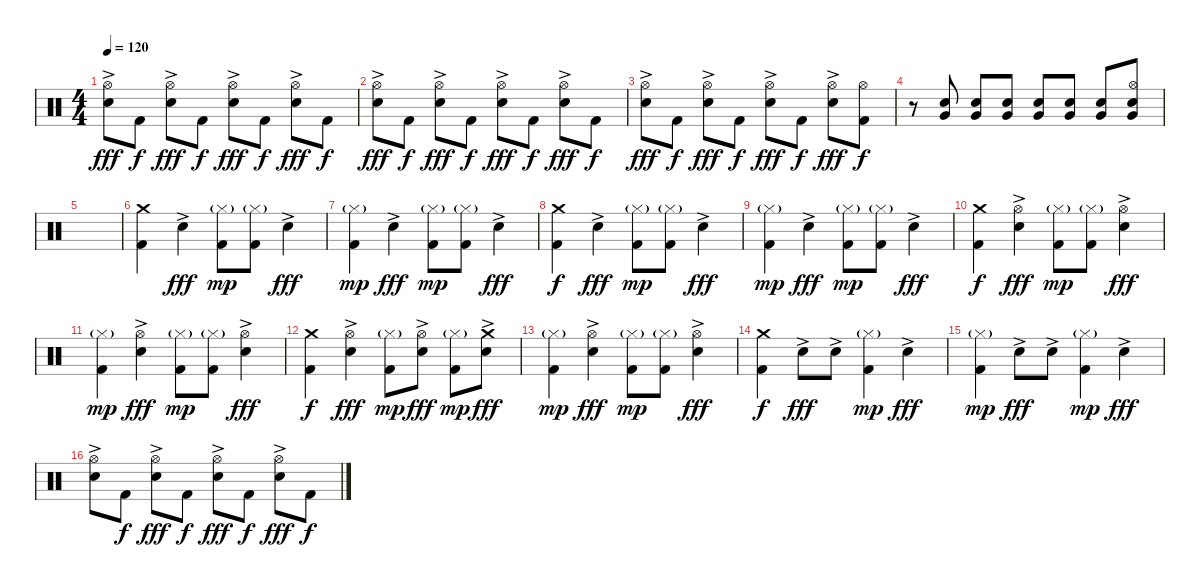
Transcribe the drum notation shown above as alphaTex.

\track "" {instrument percussion}
\staff {score}
\articulation defaults
\ts (4 4)
\tempo 120
\clef neutral
\ks c
("Electric Snare (hit)"{ac} "Hi-Hat (open)").8{dy fff} "Kick (hit) 2".8{dy f} ("Electric Snare (hit)"{ac} "Hi-Hat (open)").8{dy fff} "Kick (hit) 2".8{dy f} ("Electric Snare (hit)"{ac} "Hi-Hat (open)").8{dy fff} "Kick (hit) 2".8{dy f} ("Electric Snare (hit)"{ac} "Hi-Hat (open)").8{dy fff} "Kick (hit) 2".8{dy f} |
("Electric Snare (hit)"{ac} "Hi-Hat (open)").8{dy fff} "Kick (hit) 2".8{dy f} ("Electric Snare (hit)"{ac} "Hi-Hat (open)").8{dy fff} "Kick (hit) 2".8{dy f} ("Electric Snare (hit)"{ac} "Hi-Hat (open)").8{dy fff} "Kick (hit) 2".8{dy f} ("Electric Snare (hit)"{ac} "Hi-Hat (open)").8{dy fff} "Kick (hit) 2".8{dy f} |
("Electric Snare (hit)"{ac} "Hi-Hat (open)").8{dy fff} "Kick (hit) 2".8{dy f} ("Electric Snare (hit)"{ac} "Hi-Hat (open)").8{dy fff} "Kick (hit) 2".8{dy f} ("Electric Snare (hit)"{ac} "Hi-Hat (open)").8{dy fff} "Kick (hit) 2".8{dy f} ("Electric Snare (hit)"{ac} "Hi-Hat (open)").8{dy fff} ("Kick (hit) 2" "Hi-Hat (open)").8{dy f} |
r.8 ("Electric Snare (hit)" "Very Low Tom (hit)").8 ("Electric Snare (hit)" "Very Low Tom (hit)").8 ("Electric Snare (hit)" "Very Low Tom (hit)").8 ("Electric Snare (hit)" "Very Low Tom (hit)").8 ("Electric Snare (hit)" "Very Low Tom (hit)").8 ("Electric Snare (hit)" "Very Low Tom (hit)").8 ("Hi-Hat (open)" "Electric Snare (hit)" "Very Low Tom (hit)").8 |
|
("Kick (hit) 2" "Crash medium (hit)").4 "Electric Snare (hit)"{ac}.4{dy fff} ("Kick (hit) 2" "Hi-Hat (closed)"{g}).8{dy mp} ("Kick (hit) 2" "Hi-Hat (closed)"{g}).8 "Electric Snare (hit)"{ac}.4{dy fff} |
("Kick (hit) 2" "Hi-Hat (closed)"{g}).4{dy mp} "Electric Snare (hit)"{ac}.4{dy fff} ("Kick (hit) 2" "Hi-Hat (closed)"{g}).8{dy mp} ("Kick (hit) 2" "Hi-Hat (closed)"{g}).8 "Electric Snare (hit)"{ac}.4{dy fff} |
("Kick (hit) 2" "Crash medium (hit)").4{dy f} "Electric Snare (hit)"{ac}.4{dy fff} ("Kick (hit) 2" "Hi-Hat (closed)"{g}).8{dy mp} ("Kick (hit) 2" "Hi-Hat (closed)"{g}).8 "Electric Snare (hit)"{ac}.4{dy fff} |
("Kick (hit) 2" "Hi-Hat (closed)"{g}).4{dy mp} "Electric Snare (hit)"{ac}.4{dy fff} ("Kick (hit) 2" "Hi-Hat (closed)"{g}).8{dy mp} ("Kick (hit) 2" "Hi-Hat (closed)"{g}).8 "Electric Snare (hit)"{ac}.4{dy fff} |
("Kick (hit) 2" "Crash medium (hit)").4{dy f} ("Electric Snare (hit)"{ac} "Hi-Hat (open)").4{dy fff} ("Kick (hit) 2" "Hi-Hat (closed)"{g}).8{dy mp} ("Kick (hit) 2" "Hi-Hat (closed)"{g}).8 ("Electric Snare (hit)"{ac} "Hi-Hat (open)").4{dy fff} |
("Kick (hit) 2" "Hi-Hat (closed)"{g}).4{dy mp} ("Electric Snare (hit)"{ac} "Hi-Hat (open)").4{dy fff} ("Kick (hit) 2" "Hi-Hat (closed)"{g}).8{dy mp} ("Kick (hit) 2" "Hi-Hat (closed)"{g}).8 ("Electric Snare (hit)"{ac} "Hi-Hat (open)").4{dy fff} |
("Kick (hit) 2" "Crash medium (hit)").4{dy f} ("Electric Snare (hit)"{ac} "Hi-Hat (open)").4{dy fff} ("Kick (hit) 2" "Hi-Hat (closed)"{g}).8{dy mp} ("Electric Snare (hit)"{ac} "Hi-Hat (open)").8{dy fff} ("Kick (hit) 2" "Hi-Hat (closed)"{g}).8{dy mp} ("Electric Snare (hit)"{ac} "Crash medium (hit)").8{dy fff} |
("Kick (hit) 2" "Hi-Hat (closed)"{g}).4{dy mp} ("Electric Snare (hit)"{ac} "Hi-Hat (open)").4{dy fff} ("Kick (hit) 2" "Hi-Hat (closed)"{g}).8{dy mp} ("Kick (hit) 2" "Hi-Hat (closed)"{g}).8 ("Electric Snare (hit)"{ac} "Hi-Hat (open)").4{dy fff} |
("Kick (hit) 2" "Crash medium (hit)").4{dy f} "Electric Snare (hit)"{ac}.8{dy fff} "Electric Snare (hit)"{ac}.8 ("Kick (hit) 2" "Hi-Hat (closed)"{g}).4{dy mp} "Electric Snare (hit)"{ac}.4{dy fff} |
("Kick (hit) 2" "Hi-Hat (closed)"{g}).4{dy mp} "Electric Snare (hit)"{ac}.8{dy fff} "Electric Snare (hit)"{ac}.8 ("Kick (hit) 2" "Hi-Hat (closed)"{g}).4{dy mp} "Electric Snare (hit)"{ac}.4{dy fff} |
("Electric Snare (hit)"{ac} "Hi-Hat (open)").8 "Kick (hit) 2".8{dy f} ("Electric Snare (hit)"{ac} "Hi-Hat (open)").8{dy fff} "Kick (hit) 2".8{dy f} ("Electric Snare (hit)"{ac} "Hi-Hat (open)").8{dy fff} "Kick (hit) 2".8{dy f} ("Electric Snare (hit)"{ac} "Hi-Hat (open)").8{dy fff} "Kick (hit) 2".8{dy f}
